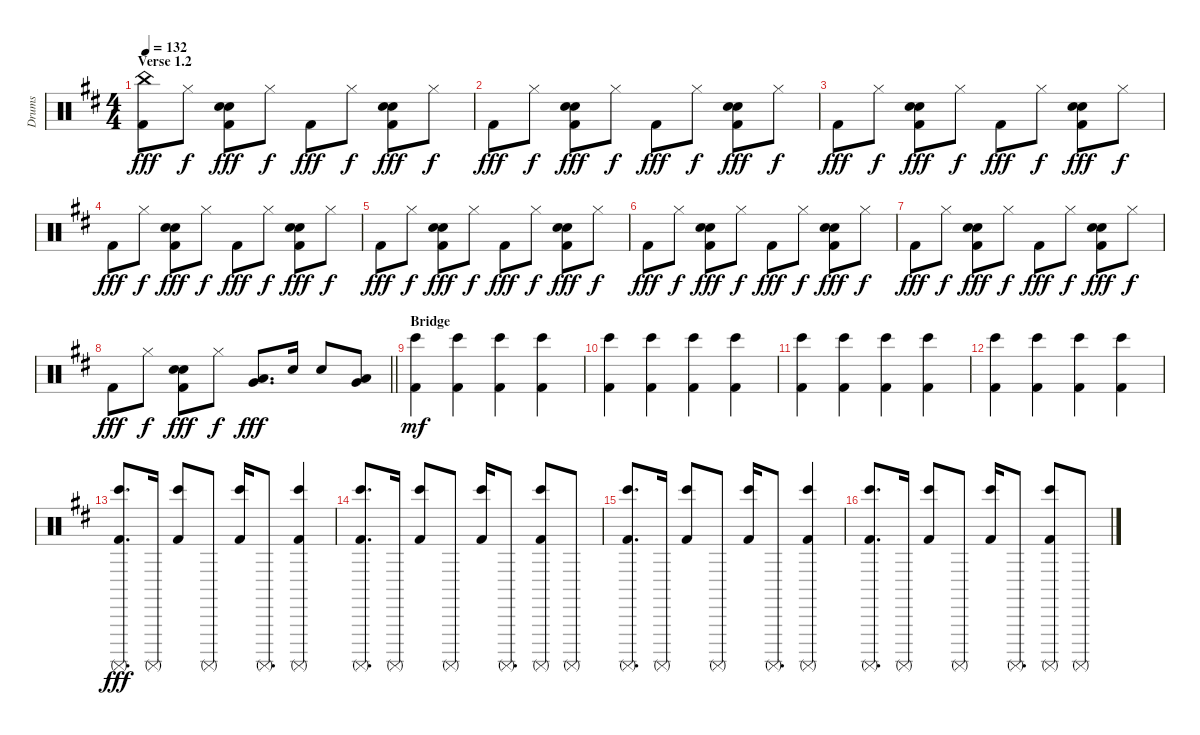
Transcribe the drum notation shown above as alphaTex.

\track ("Drums" "Drums") {instrument percussion}
\staff {score}
\articulation defaults
\ts (4 4)
\section ("" "Verse 1.2")
\tempo 132
\clef neutral
\ks d
("China (hit)" "Kick (hit) 2").8{dy fff} "Hi-Hat (closed)".8{dy f} ("Snare (hit) 2" "Electric Snare (hit)" "Kick (hit) 2").8{dy fff} "Hi-Hat (closed)".8{dy f} "Kick (hit) 2".8{dy fff} "Hi-Hat (closed)".8{dy f} ("Snare (hit) 2" "Electric Snare (hit)" "Kick (hit) 2").8{dy fff} "Hi-Hat (closed)".8{dy f} |
"Kick (hit) 2".8{dy fff} "Hi-Hat (closed)".8{dy f} ("Snare (hit) 2" "Electric Snare (hit)" "Kick (hit) 2").8{dy fff} "Hi-Hat (closed)".8{dy f} "Kick (hit) 2".8{dy fff} "Hi-Hat (closed)".8{dy f} ("Snare (hit) 2" "Electric Snare (hit)" "Kick (hit) 2").8{dy fff} "Hi-Hat (closed)".8{dy f} |
"Kick (hit) 2".8{dy fff} "Hi-Hat (closed)".8{dy f} ("Snare (hit) 2" "Electric Snare (hit)" "Kick (hit) 2").8{dy fff} "Hi-Hat (closed)".8{dy f} "Kick (hit) 2".8{dy fff} "Hi-Hat (closed)".8{dy f} ("Snare (hit) 2" "Electric Snare (hit)" "Kick (hit) 2").8{dy fff} "Hi-Hat (closed)".8{dy f} |
"Kick (hit) 2".8{dy fff} "Hi-Hat (closed)".8{dy f} ("Snare (hit) 2" "Electric Snare (hit)" "Kick (hit) 2").8{dy fff} "Hi-Hat (closed)".8{dy f} "Kick (hit) 2".8{dy fff} "Hi-Hat (closed)".8{dy f} ("Snare (hit) 2" "Electric Snare (hit)" "Kick (hit) 2").8{dy fff} "Hi-Hat (closed)".8{dy f} |
"Kick (hit) 2".8{dy fff} "Hi-Hat (closed)".8{dy f} ("Snare (hit) 2" "Electric Snare (hit)" "Kick (hit) 2").8{dy fff} "Hi-Hat (closed)".8{dy f} "Kick (hit) 2".8{dy fff} "Hi-Hat (closed)".8{dy f} ("Snare (hit) 2" "Electric Snare (hit)" "Kick (hit) 2").8{dy fff} "Hi-Hat (closed)".8{dy f} |
"Kick (hit) 2".8{dy fff} "Hi-Hat (closed)".8{dy f} ("Snare (hit) 2" "Electric Snare (hit)" "Kick (hit) 2").8{dy fff} "Hi-Hat (closed)".8{dy f} "Kick (hit) 2".8{dy fff} "Hi-Hat (closed)".8{dy f} ("Snare (hit) 2" "Electric Snare (hit)" "Kick (hit) 2").8{dy fff} "Hi-Hat (closed)".8{dy f} |
"Kick (hit) 2".8{dy fff} "Hi-Hat (closed)".8{dy f} ("Snare (hit) 2" "Electric Snare (hit)" "Kick (hit) 2").8{dy fff} "Hi-Hat (closed)".8{dy f} "Kick (hit) 2".8{dy fff} "Hi-Hat (closed)".8{dy f} ("Snare (hit) 2" "Electric Snare (hit)" "Kick (hit) 2").8{dy fff} "Hi-Hat (closed)".8{dy f} |
\barLineRight lightlight "Kick (hit) 2".8{dy fff} "Hi-Hat (closed)".8{dy f}
("Snare (hit) 2" "Electric Snare (hit)" "Kick (hit) 2").8{dy fff} "Hi-Hat (closed)".8{dy f} ("Very Low Tom (hit)" "Low Floor Tom (hit)").8{d dy fff} "Electric Snare (hit)".16 "Electric Snare (hit)".8 ("Very Low Tom (hit)" "Low Floor Tom (hit)").8 |
\section ("" "Bridge")
("Bongo High (hit)" "Kick (hit) 2").4{dy mf} ("Bongo High (hit)" "Kick (hit) 2").4 ("Bongo High (hit)" "Kick (hit) 2").4 ("Bongo High (hit)" "Kick (hit) 2").4 |
("Bongo High (hit)" "Kick (hit) 2").4 ("Bongo High (hit)" "Kick (hit) 2").4 ("Bongo High (hit)" "Kick (hit) 2").4 ("Bongo High (hit)" "Kick (hit) 2").4 |
("Bongo High (hit)" "Kick (hit) 2").4 ("Bongo High (hit)" "Kick (hit) 2").4 ("Bongo High (hit)" "Kick (hit) 2").4 ("Bongo High (hit)" "Kick (hit) 2").4 |
("Bongo High (hit)" "Kick (hit) 2").4 ("Bongo High (hit)" "Kick (hit) 2").4 ("Bongo High (hit)" "Kick (hit) 2").4 ("Bongo High (hit)" "Kick (hit) 2").4 |
("Bongo High (hit)" "Surdo (mute)" "Kick (hit) 2").8{d dy fff} "Surdo (mute)".16 ("Bongo High (hit)" "Kick (hit) 2").8 "Surdo (mute)".8 ("Bongo High (hit)" "Kick (hit) 2").16 "Surdo (mute)".8{d} ("Bongo High (hit)" "Surdo (mute)" "Kick (hit) 2").4 |
("Bongo High (hit)" "Surdo (mute)" "Kick (hit) 2").8{d} "Surdo (mute)".16 ("Bongo High (hit)" "Kick (hit) 2").8 "Surdo (mute)".8 ("Bongo High (hit)" "Kick (hit) 2").16 "Surdo (mute)".8{d} ("Bongo High (hit)" "Surdo (mute)" "Kick (hit) 2").8 "Surdo (mute)".8 |
("Bongo High (hit)" "Surdo (mute)" "Kick (hit) 2").8{d} "Surdo (mute)".16 ("Bongo High (hit)" "Kick (hit) 2").8 "Surdo (mute)".8 ("Bongo High (hit)" "Kick (hit) 2").16 "Surdo (mute)".8{d} ("Bongo High (hit)" "Surdo (mute)" "Kick (hit) 2").4 |
("Bongo High (hit)" "Surdo (mute)" "Kick (hit) 2").8{d} "Surdo (mute)".16 ("Bongo High (hit)" "Kick (hit) 2").8 "Surdo (mute)".8 ("Bongo High (hit)" "Kick (hit) 2").16 "Surdo (mute)".8{d} ("Bongo High (hit)" "Surdo (mute)" "Kick (hit) 2").8 "Surdo (mute)".8
